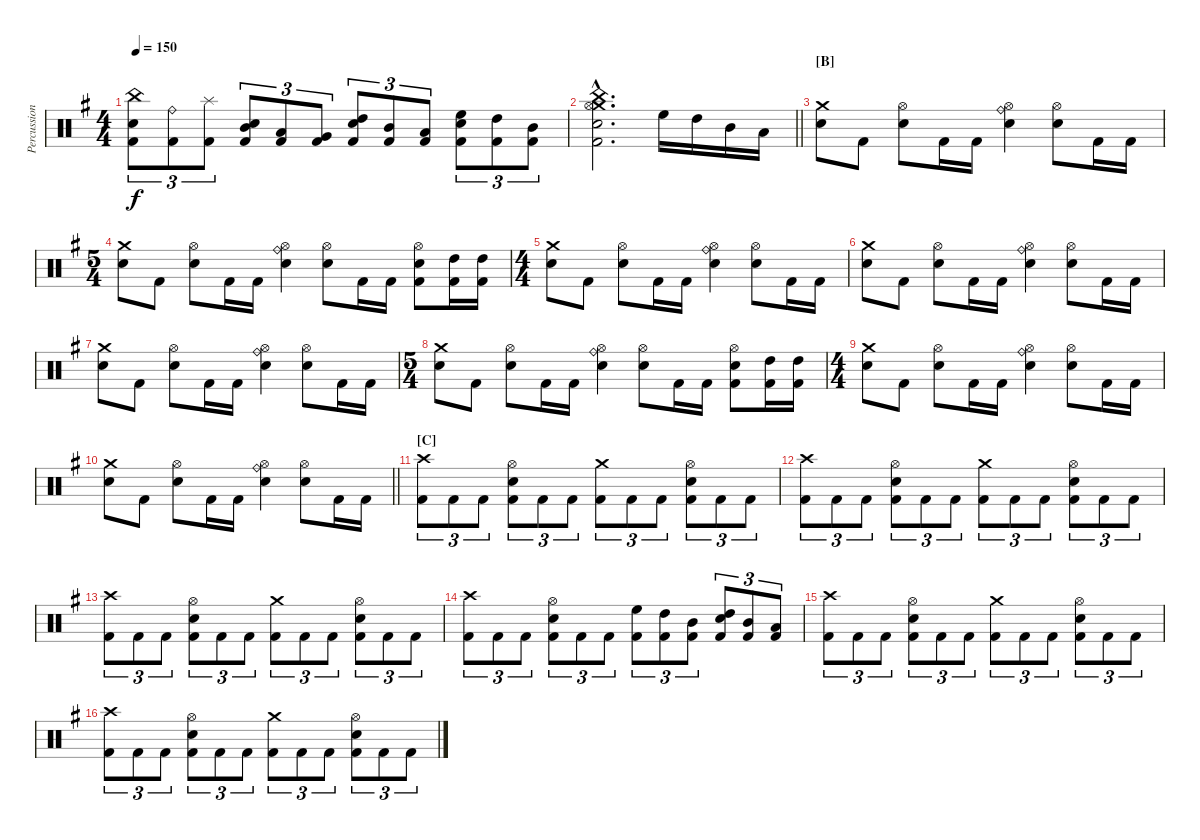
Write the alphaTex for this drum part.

\track ("Percussion" "Percussion") {instrument percussion}
\staff {score}
\articulation defaults
\ts (4 4)
\tempo 150
\clef neutral
\ks eminor
("China (hit)" "Snare (hit) 2" "Kick (hit) 2").8{tu (3 2) dy f} ("Ride (bell)" "Kick (hit) 2").8{tu (3 2)} ("Splash (hit)" "Kick (hit) 2").8{tu (3 2)} ("Mid Tom (hit)" "Snare (hit) 2" "Kick (hit) 2").8{tu (3 2)} ("Low Tom (hit)" "Kick (hit) 2").8{tu (3 2)} ("Very Low Tom (hit)" "Kick (hit) 2").8{tu (3 2)} ("High Tom (hit)" "Snare (hit) 2" "Kick (hit) 2").8{tu (3 2)} ("Mid Tom (hit)" "Kick (hit) 2").8{tu (3 2)} ("Low Tom (hit)" "Kick (hit) 2").8{tu (3 2)} ("High Floor Tom (hit)" "Snare (hit) 2" "Kick (hit) 2").8{tu (3 2)} ("High Tom (hit)" "Kick (hit) 2").8{tu (3 2)} ("Mid Tom (hit)" "Kick (hit) 2").8{tu (3 2)} |
\barLineRight lightlight
("Crash medium (hit)"{hac} "China (hit)"{hac} "Hi-Hat (open)"{hac} "Snare (hit) 2"{hac} "Kick (hit) 2"{hac}).2{d} "High Floor Tom (hit)".16 "High Tom (hit)".16 "Mid Tom (hit)".16 "Low Tom (hit)".16 |
\section ("" "[B]")
("Crash medium (hit)" "Snare (hit) 2").8 "Kick (hit) 2".8 ("Hi-Hat (open)" "Snare (hit) 2").8 "Kick (hit) 2".16 "Kick (hit) 2".16 ("Ride (bell)" "Hi-Hat (open)" "Snare (hit) 2").4 ("Hi-Hat (open)" "Snare (hit) 2").8 "Kick (hit) 2".16 "Kick (hit) 2".16 |
\ts (5 4)
("Crash medium (hit)" "Snare (hit) 2").8 "Kick (hit) 2".8 ("Hi-Hat (open)" "Snare (hit) 2").8 "Kick (hit) 2".16 "Kick (hit) 2".16 ("Ride (bell)" "Hi-Hat (open)" "Snare (hit) 2").4 ("Hi-Hat (open)" "Snare (hit) 2").8 "Kick (hit) 2".16 "Kick (hit) 2".16 ("Hi-Hat (open)" "Snare (hit) 2" "Kick (hit) 2").8 ("High Tom (hit)" "Kick (hit) 2").16 ("High Tom (hit)" "Kick (hit) 2").16 |
\ts (4 4)
("Crash medium (hit)" "Snare (hit) 2").8 "Kick (hit) 2".8 ("Hi-Hat (open)" "Snare (hit) 2").8 "Kick (hit) 2".16 "Kick (hit) 2".16 ("Ride (bell)" "Hi-Hat (open)" "Snare (hit) 2").4 ("Hi-Hat (open)" "Snare (hit) 2").8 "Kick (hit) 2".16 "Kick (hit) 2".16 |
("Crash medium (hit)" "Snare (hit) 2").8 "Kick (hit) 2".8 ("Hi-Hat (open)" "Snare (hit) 2").8 "Kick (hit) 2".16 "Kick (hit) 2".16 ("Ride (bell)" "Hi-Hat (open)" "Snare (hit) 2").4 ("Hi-Hat (open)" "Snare (hit) 2").8 "Kick (hit) 2".16 "Kick (hit) 2".16 |
("Crash medium (hit)" "Snare (hit) 2").8 "Kick (hit) 2".8 ("Hi-Hat (open)" "Snare (hit) 2").8 "Kick (hit) 2".16 "Kick (hit) 2".16 ("Ride (bell)" "Hi-Hat (open)" "Snare (hit) 2").4 ("Hi-Hat (open)" "Snare (hit) 2").8 "Kick (hit) 2".16 "Kick (hit) 2".16 |
\ts (5 4)
("Crash medium (hit)" "Snare (hit) 2").8 "Kick (hit) 2".8 ("Hi-Hat (open)" "Snare (hit) 2").8 "Kick (hit) 2".16 "Kick (hit) 2".16 ("Ride (bell)" "Hi-Hat (open)" "Snare (hit) 2").4 ("Hi-Hat (open)" "Snare (hit) 2").8 "Kick (hit) 2".16 "Kick (hit) 2".16 ("Hi-Hat (open)" "Snare (hit) 2" "Kick (hit) 2").8 ("High Tom (hit)" "Kick (hit) 2").16 ("High Tom (hit)" "Kick (hit) 2").16 |
\ts (4 4)
("Crash medium (hit)" "Snare (hit) 2").8 "Kick (hit) 2".8 ("Hi-Hat (open)" "Snare (hit) 2").8 "Kick (hit) 2".16 "Kick (hit) 2".16 ("Ride (bell)" "Hi-Hat (open)" "Snare (hit) 2").4 ("Hi-Hat (open)" "Snare (hit) 2").8 "Kick (hit) 2".16 "Kick (hit) 2".16 |
\barLineRight lightlight
("Crash medium (hit)" "Snare (hit) 2").8 "Kick (hit) 2".8 ("Hi-Hat (open)" "Snare (hit) 2").8 "Kick (hit) 2".16 "Kick (hit) 2".16 ("Ride (bell)" "Hi-Hat (open)" "Snare (hit) 2").4 ("Hi-Hat (open)" "Snare (hit) 2").8 "Kick (hit) 2".16 "Kick (hit) 2".16 |
\section ("" "[C]")
("Crash high (hit)" "Kick (hit) 2").8{tu (3 2)} "Kick (hit) 2".8{tu (3 2)} "Kick (hit) 2".8{tu (3 2)} ("Hi-Hat (open)" "Snare (hit) 2" "Kick (hit) 2").8{tu (3 2)} "Kick (hit) 2".8{tu (3 2)} "Kick (hit) 2".8{tu (3 2)} ("Crash medium (hit)" "Kick (hit) 2").8{tu (3 2)} "Kick (hit) 2".8{tu (3 2)} "Kick (hit) 2".8{tu (3 2)} ("Hi-Hat (open)" "Snare (hit) 2" "Kick (hit) 2").8{tu (3 2)} "Kick (hit) 2".8{tu (3 2)} "Kick (hit) 2".8{tu (3 2)} |
("Crash high (hit)" "Kick (hit) 2").8{tu (3 2)} "Kick (hit) 2".8{tu (3 2)} "Kick (hit) 2".8{tu (3 2)} ("Hi-Hat (open)" "Snare (hit) 2" "Kick (hit) 2").8{tu (3 2)} "Kick (hit) 2".8{tu (3 2)} "Kick (hit) 2".8{tu (3 2)} ("Crash medium (hit)" "Kick (hit) 2").8{tu (3 2)} "Kick (hit) 2".8{tu (3 2)} "Kick (hit) 2".8{tu (3 2)} ("Hi-Hat (open)" "Snare (hit) 2" "Kick (hit) 2").8{tu (3 2)} "Kick (hit) 2".8{tu (3 2)} "Kick (hit) 2".8{tu (3 2)} |
("Crash high (hit)" "Kick (hit) 2").8{tu (3 2)} "Kick (hit) 2".8{tu (3 2)} "Kick (hit) 2".8{tu (3 2)} ("Hi-Hat (open)" "Snare (hit) 2" "Kick (hit) 2").8{tu (3 2)} "Kick (hit) 2".8{tu (3 2)} "Kick (hit) 2".8{tu (3 2)} ("Crash medium (hit)" "Kick (hit) 2").8{tu (3 2)} "Kick (hit) 2".8{tu (3 2)} "Kick (hit) 2".8{tu (3 2)} ("Hi-Hat (open)" "Snare (hit) 2" "Kick (hit) 2").8{tu (3 2)} "Kick (hit) 2".8{tu (3 2)} "Kick (hit) 2".8{tu (3 2)} |
("Crash high (hit)" "Kick (hit) 2").8{tu (3 2)} "Kick (hit) 2".8{tu (3 2)} "Kick (hit) 2".8{tu (3 2)} ("Hi-Hat (open)" "Snare (hit) 2" "Kick (hit) 2").8{tu (3 2)} "Kick (hit) 2".8{tu (3 2)} "Kick (hit) 2".8{tu (3 2)} ("High Floor Tom (hit)" "Kick (hit) 2").8{tu (3 2)} ("High Tom (hit)" "Kick (hit) 2").8{tu (3 2)} ("Mid Tom (hit)" "Kick (hit) 2").8{tu (3 2)} ("High Tom (hit)" "Snare (hit) 2" "Kick (hit) 2").8{tu (3 2)} ("Mid Tom (hit)" "Kick (hit) 2").8{tu (3 2)} ("Low Tom (hit)" "Kick (hit) 2").8{tu (3 2)} |
("Crash high (hit)" "Kick (hit) 2").8{tu (3 2)} "Kick (hit) 2".8{tu (3 2)} "Kick (hit) 2".8{tu (3 2)} ("Hi-Hat (open)" "Snare (hit) 2" "Kick (hit) 2").8{tu (3 2)} "Kick (hit) 2".8{tu (3 2)} "Kick (hit) 2".8{tu (3 2)} ("Crash medium (hit)" "Kick (hit) 2").8{tu (3 2)} "Kick (hit) 2".8{tu (3 2)} "Kick (hit) 2".8{tu (3 2)} ("Hi-Hat (open)" "Snare (hit) 2" "Kick (hit) 2").8{tu (3 2)} "Kick (hit) 2".8{tu (3 2)} "Kick (hit) 2".8{tu (3 2)} |
("Crash high (hit)" "Kick (hit) 2").8{tu (3 2)} "Kick (hit) 2".8{tu (3 2)} "Kick (hit) 2".8{tu (3 2)} ("Hi-Hat (open)" "Snare (hit) 2" "Kick (hit) 2").8{tu (3 2)} "Kick (hit) 2".8{tu (3 2)} "Kick (hit) 2".8{tu (3 2)} ("Crash medium (hit)" "Kick (hit) 2").8{tu (3 2)} "Kick (hit) 2".8{tu (3 2)} "Kick (hit) 2".8{tu (3 2)} ("Hi-Hat (open)" "Snare (hit) 2" "Kick (hit) 2").8{tu (3 2)} "Kick (hit) 2".8{tu (3 2)} "Kick (hit) 2".8{tu (3 2)}
